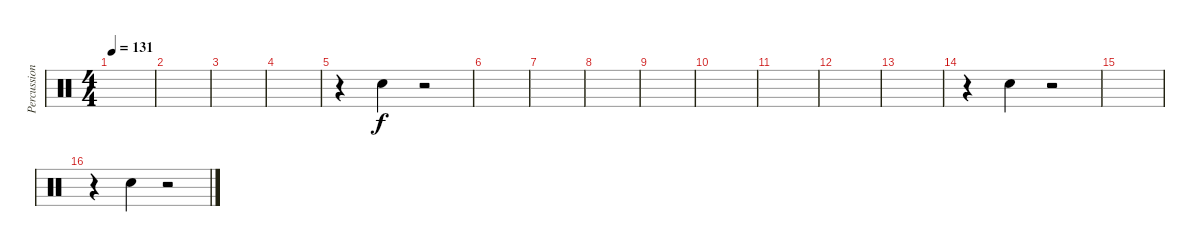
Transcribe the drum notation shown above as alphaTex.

\track ("Percussions" "Percussion") {instrument percussion}
\staff {score}
\articulation defaults
\ts (4 4)
\tempo 131
\clef neutral
\ks c
|
|
|
|
r.4 "Snare (hit) 2".4 r.2 |
|
|
|
|
|
|
|
|
r.4 "Snare (hit) 2".4 r.2 |
|
r.4 "Snare (hit) 2".4 r.2
